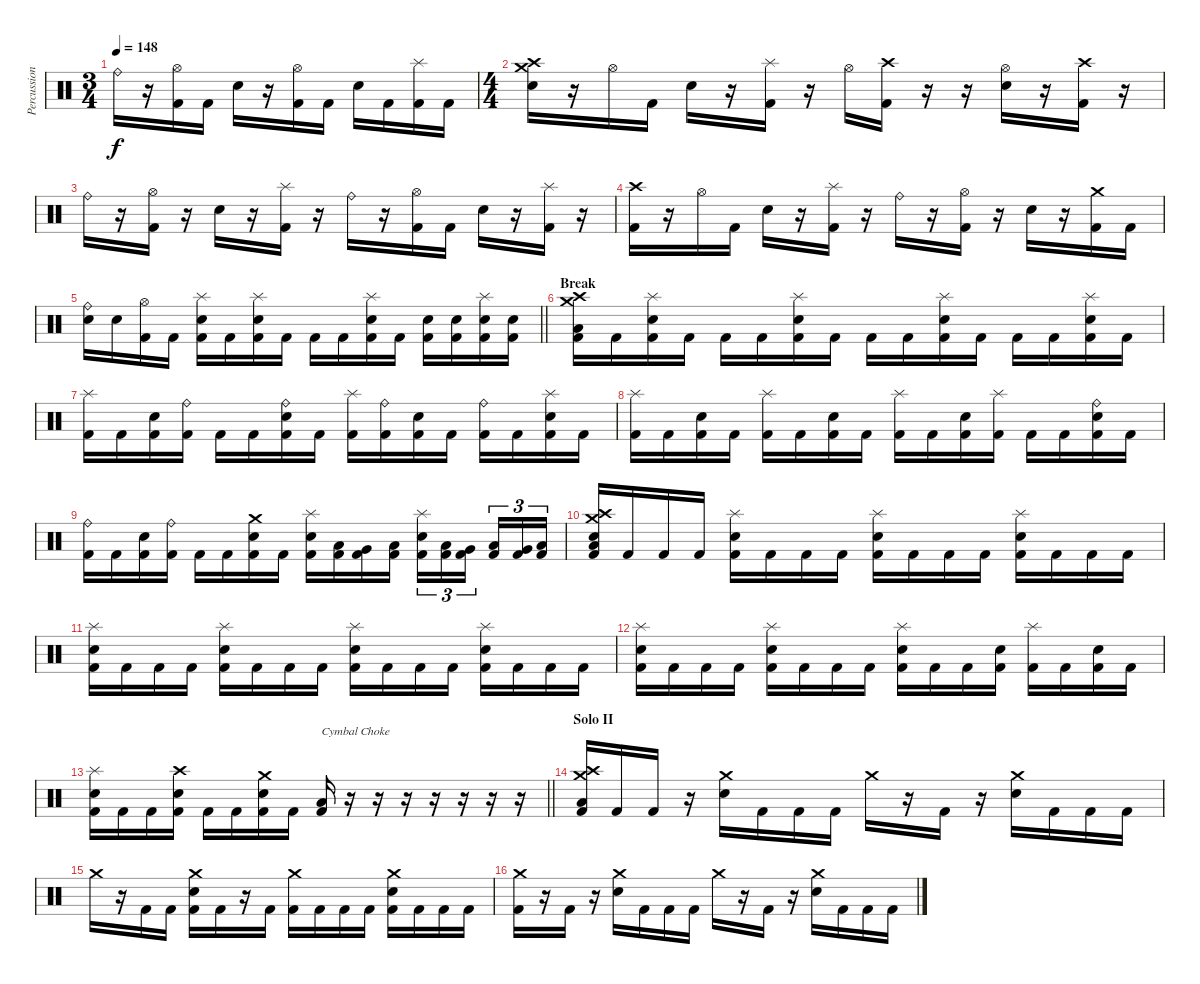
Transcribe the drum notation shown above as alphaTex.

\track ("Percussion" "Percussion") {instrument percussion}
\staff {score}
\articulation defaults
\ts (3 4)
\tempo 148
\clef neutral
\ks c "Ride (bell)".16{dy f}
r.16 ("Hi-Hat (open)" "Kick (hit) 2").16 "Kick (hit) 2".16 "Electric Snare (hit)".16 r.16 ("Hi-Hat (open)" "Kick (hit) 2").16 "Kick (hit) 2".16 "Electric Snare (hit)".16 "Kick (hit) 2".16 ("Splash (hit)" "Kick (hit) 2").16 "Kick (hit) 2".16 |
\ts (4 4)
("Crash medium (hit)" "Crash high (hit)" "Electric Snare (hit)").16 r.16 "Hi-Hat (open)".16 "Kick (hit) 2".16 "Electric Snare (hit)".16 r.16 ("Splash (hit)" "Kick (hit) 2").16 r.16 "Hi-Hat (open)".16 ("Crash high (hit)" "Kick (hit) 2").16 r.16 r.16 ("Hi-Hat (open)" "Electric Snare (hit)").16 r.16 ("Crash high (hit)" "Kick (hit) 2").16 r.16 |
"Ride (bell)".16 r.16 ("Hi-Hat (open)" "Kick (hit) 2").16 r.16 "Electric Snare (hit)".16 r.16 ("Splash (hit)" "Kick (hit) 2").16 r.16 "Ride (bell)".16 r.16 ("Hi-Hat (open)" "Kick (hit) 2").16 "Kick (hit) 2".16 "Electric Snare (hit)".16 r.16 ("Splash (hit)" "Kick (hit) 2").16 r.16 |
("Crash high (hit)" "Kick (hit) 2").16 r.16 "Hi-Hat (open)".16 "Kick (hit) 2".16 "Electric Snare (hit)".16 r.16 ("Splash (hit)" "Kick (hit) 2").16 r.16 "Ride (bell)".16 r.16 ("Hi-Hat (open)" "Kick (hit) 2").16 r.16 "Electric Snare (hit)".16 r.16 ("Crash medium (hit)" "Kick (hit) 2").16 "Kick (hit) 2".16 |
\barLineRight lightlight
("Ride (bell)" "Electric Snare (hit)").16 "Electric Snare (hit)".16 ("Hi-Hat (open)" "Kick (hit) 2").16 "Kick (hit) 2".16 ("Splash (hit)" "Electric Snare (hit)" "Kick (hit) 2").16 "Kick (hit) 2".16 ("Splash (hit)" "Electric Snare (hit)" "Kick (hit) 2").16 "Kick (hit) 2".16 "Kick (hit) 2".16 "Kick (hit) 2".16 ("Splash (hit)" "Electric Snare (hit)" "Kick (hit) 2").16 "Kick (hit) 2".16 ("Electric Snare (hit)" "Kick (hit) 2").16 ("Electric Snare (hit)" "Kick (hit) 2").16 ("Splash (hit)" "Electric Snare (hit)" "Kick (hit) 2").16 ("Electric Snare (hit)" "Kick (hit) 2").16 |
\section ("" "Break")
("Crash high (hit)" "Crash medium (hit)" "Low Floor Tom (hit)" "Kick (hit) 2").16 "Kick (hit) 2".16 ("Splash (hit)" "Electric Snare (hit)" "Kick (hit) 2").16 "Kick (hit) 2".16 "Kick (hit) 2".16 "Kick (hit) 2".16 ("Splash (hit)" "Electric Snare (hit)" "Kick (hit) 2").16 "Kick (hit) 2".16 "Kick (hit) 2".16 "Kick (hit) 2".16 ("Splash (hit)" "Electric Snare (hit)" "Kick (hit) 2").16 "Kick (hit) 2".16 "Kick (hit) 2".16 "Kick (hit) 2".16 ("Splash (hit)" "Electric Snare (hit)" "Kick (hit) 2").16 "Kick (hit) 2".16 |
("Splash (hit)" "Kick (hit) 2").16 "Kick (hit) 2".16 ("Electric Snare (hit)" "Kick (hit) 2").16 ("Ride (bell)" "Kick (hit) 2").16 "Kick (hit) 2".16 "Kick (hit) 2".16 ("Ride (bell)" "Electric Snare (hit)" "Kick (hit) 2").16 "Kick (hit) 2".16 ("Splash (hit)" "Kick (hit) 2").16 ("Ride (bell)" "Kick (hit) 2").16 ("Electric Snare (hit)" "Kick (hit) 2").16 "Kick (hit) 2".16 ("Ride (bell)" "Kick (hit) 2").16 "Kick (hit) 2".16 ("Splash (hit)" "Electric Snare (hit)" "Kick (hit) 2").16 "Kick (hit) 2".16 |
("Splash (hit)" "Kick (hit) 2").16 "Kick (hit) 2".16 ("Electric Snare (hit)" "Kick (hit) 2").16 "Kick (hit) 2".16 ("Splash (hit)" "Kick (hit) 2").16 "Kick (hit) 2".16 ("Electric Snare (hit)" "Kick (hit) 2").16 "Kick (hit) 2".16 ("Splash (hit)" "Kick (hit) 2").16 "Kick (hit) 2".16 ("Electric Snare (hit)" "Kick (hit) 2").16 ("Splash (hit)" "Kick (hit) 2").16 "Kick (hit) 2".16 "Kick (hit) 2".16 ("Ride (bell)" "Electric Snare (hit)" "Kick (hit) 2").16 "Kick (hit) 2".16 |
("Ride (bell)" "Kick (hit) 2").16 "Kick (hit) 2".16 ("Electric Snare (hit)" "Kick (hit) 2").16 ("Ride (bell)" "Kick (hit) 2").16 "Kick (hit) 2".16 "Kick (hit) 2".16 ("Crash medium (hit)" "Electric Snare (hit)" "Kick (hit) 2").16 "Kick (hit) 2".16 ("Splash (hit)" "Electric Snare (hit)" "Kick (hit) 2").16 ("Low Tom (hit)" "Kick (hit) 2").16 ("Very Low Tom (hit)" "Kick (hit) 2").16 ("Low Floor Tom (hit)" "Kick (hit) 2").16 ("Splash (hit)" "Electric Snare (hit)" "Kick (hit) 2").16{tu (3 2)} ("Low Tom (hit)" "Kick (hit) 2").16{tu (3 2)} ("Very Low Tom (hit)" "Kick (hit) 2").16{tu (3 2) beam splitsecondary} ("Low Tom (hit)" "Kick (hit) 2").16{tu (3 2)} ("Very Low Tom (hit)" "Kick (hit) 2").16{tu (3 2)} ("Low Floor Tom (hit)" "Kick (hit) 2").16{tu (3 2)} |
("Crash high (hit)" "Crash medium (hit)" "Electric Snare (hit)" "Low Floor Tom (hit)" "Kick (hit) 2").16 "Kick (hit) 2".16 "Kick (hit) 2".16 "Kick (hit) 2".16 ("Splash (hit)" "Electric Snare (hit)" "Kick (hit) 2").16 "Kick (hit) 2".16 "Kick (hit) 2".16 "Kick (hit) 2".16 ("Splash (hit)" "Electric Snare (hit)" "Kick (hit) 2").16 "Kick (hit) 2".16 "Kick (hit) 2".16 "Kick (hit) 2".16 ("Splash (hit)" "Electric Snare (hit)" "Kick (hit) 2").16 "Kick (hit) 2".16 "Kick (hit) 2".16 "Kick (hit) 2".16 |
("Splash (hit)" "Electric Snare (hit)" "Kick (hit) 2").16 "Kick (hit) 2".16 "Kick (hit) 2".16 "Kick (hit) 2".16 ("Splash (hit)" "Electric Snare (hit)" "Kick (hit) 2").16 "Kick (hit) 2".16 "Kick (hit) 2".16 "Kick (hit) 2".16 ("Splash (hit)" "Electric Snare (hit)" "Kick (hit) 2").16 "Kick (hit) 2".16 "Kick (hit) 2".16 "Kick (hit) 2".16 ("Splash (hit)" "Electric Snare (hit)" "Kick (hit) 2").16 "Kick (hit) 2".16 "Kick (hit) 2".16 "Kick (hit) 2".16 |
("Splash (hit)" "Electric Snare (hit)" "Kick (hit) 2").16 "Kick (hit) 2".16 "Kick (hit) 2".16 "Kick (hit) 2".16 ("Splash (hit)" "Electric Snare (hit)" "Kick (hit) 2").16 "Kick (hit) 2".16 "Kick (hit) 2".16 "Kick (hit) 2".16 ("Splash (hit)" "Electric Snare (hit)" "Kick (hit) 2").16 "Kick (hit) 2".16 "Kick (hit) 2".16 ("Electric Snare (hit)" "Kick (hit) 2").16 ("Splash (hit)" "Kick (hit) 2").16 "Kick (hit) 2".16 ("Electric Snare (hit)" "Kick (hit) 2").16 "Kick (hit) 2".16 |
\barLineRight lightlight
("Splash (hit)" "Electric Snare (hit)" "Kick (hit) 2").16 "Kick (hit) 2".16 "Kick (hit) 2".16 ("Crash high (hit)" "Electric Snare (hit)" "Kick (hit) 2").16 "Kick (hit) 2".16 "Kick (hit) 2".16 ("Crash medium (hit)" "Electric Snare (hit)" "Kick (hit) 2").16 "Kick (hit) 2".16 ("Low Floor Tom (hit)" "Kick (hit) 2").16{txt "Cymbal Choke"} r.16{volume 0} r.16 r.16 r.16 r.16 r.16 r.16 |
\section ("" "Solo II")
("Crash high (hit)" "Crash medium (hit)" "Low Floor Tom (hit)" "Kick (hit) 2").16{volume 14} "Kick (hit) 2".16 "Kick (hit) 2".16 r.16 ("Crash medium (hit)" "Electric Snare (hit)").16 "Kick (hit) 2".16 "Kick (hit) 2".16 "Kick (hit) 2".16 "Crash medium (hit)".16 r.16 "Kick (hit) 2".16 r.16 ("Crash medium (hit)" "Electric Snare (hit)").16 "Kick (hit) 2".16 "Kick (hit) 2".16 "Kick (hit) 2".16 |
"Crash medium (hit)".16 r.16 "Kick (hit) 2".16 "Kick (hit) 2".16 ("Crash medium (hit)" "Electric Snare (hit)" "Kick (hit) 2").16 "Kick (hit) 2".16 r.16 "Kick (hit) 2".16 ("Crash medium (hit)" "Kick (hit) 2").16 "Kick (hit) 2".16 "Kick (hit) 2".16 "Kick (hit) 2".16 ("Crash medium (hit)" "Electric Snare (hit)" "Kick (hit) 2").16 "Kick (hit) 2".16 "Kick (hit) 2".16 "Kick (hit) 2".16 |
("Crash medium (hit)" "Kick (hit) 2").16 r.16 "Kick (hit) 2".16 r.16 ("Crash medium (hit)" "Electric Snare (hit)").16 "Kick (hit) 2".16 "Kick (hit) 2".16 "Kick (hit) 2".16 "Crash medium (hit)".16 r.16 "Kick (hit) 2".16 r.16 ("Crash medium (hit)" "Electric Snare (hit)").16 "Kick (hit) 2".16 "Kick (hit) 2".16 "Kick (hit) 2".16
